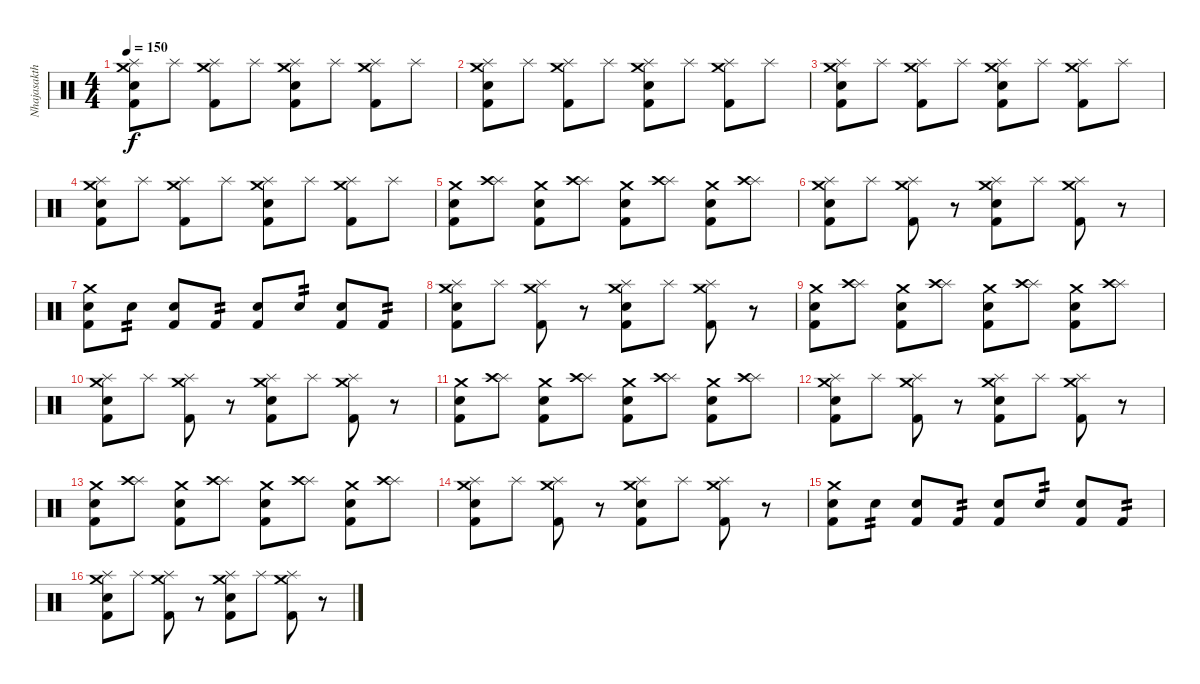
\track ("Nhajasakthee" "Nhajasakth") {instrument percussion}
\staff {score}
\articulation defaults
\ts (4 4)
\tempo 150
\clef neutral
\ks c
("Splash (hit)" "Crash medium (hit)" "Kick (hit) 2" "Electric Snare (hit)").8{dy f} "Splash (hit)".8 ("Splash (hit)" "Crash medium (hit)" "Kick (hit) 2").8 "Splash (hit)".8 ("Splash (hit)" "Crash medium (hit)" "Kick (hit) 2" "Electric Snare (hit)").8 "Splash (hit)".8 ("Splash (hit)" "Crash medium (hit)" "Kick (hit) 2").8 "Splash (hit)".8 |
("Splash (hit)" "Crash medium (hit)" "Kick (hit) 2" "Electric Snare (hit)").8 "Splash (hit)".8 ("Splash (hit)" "Crash medium (hit)" "Kick (hit) 2").8 "Splash (hit)".8 ("Splash (hit)" "Crash medium (hit)" "Kick (hit) 2" "Electric Snare (hit)").8 "Splash (hit)".8 ("Splash (hit)" "Crash medium (hit)" "Kick (hit) 2").8 "Splash (hit)".8 |
("Splash (hit)" "Crash medium (hit)" "Kick (hit) 2" "Electric Snare (hit)").8 "Splash (hit)".8 ("Splash (hit)" "Crash medium (hit)" "Kick (hit) 2").8 "Splash (hit)".8 ("Splash (hit)" "Crash medium (hit)" "Kick (hit) 2" "Electric Snare (hit)").8 "Splash (hit)".8 ("Splash (hit)" "Crash medium (hit)" "Kick (hit) 2").8 "Splash (hit)".8 |
("Splash (hit)" "Crash medium (hit)" "Kick (hit) 2" "Electric Snare (hit)").8 "Splash (hit)".8 ("Splash (hit)" "Crash medium (hit)" "Kick (hit) 2").8 "Splash (hit)".8 ("Splash (hit)" "Crash medium (hit)" "Kick (hit) 2" "Electric Snare (hit)").8 "Splash (hit)".8 ("Splash (hit)" "Crash medium (hit)" "Kick (hit) 2").8 "Splash (hit)".8 |
("Crash medium (hit)" "Kick (hit) 2" "Electric Snare (hit)").8 ("Splash (hit)" "Crash high (hit)").8 ("Crash medium (hit)" "Kick (hit) 2" "Electric Snare (hit)").8 ("Splash (hit)" "Crash high (hit)").8 ("Crash medium (hit)" "Kick (hit) 2" "Electric Snare (hit)").8 ("Splash (hit)" "Crash high (hit)").8 ("Crash medium (hit)" "Kick (hit) 2" "Electric Snare (hit)").8 ("Splash (hit)" "Crash high (hit)").8 |
("Splash (hit)" "Crash medium (hit)" "Kick (hit) 2" "Electric Snare (hit)").8 "Splash (hit)".8 ("Splash (hit)" "Crash medium (hit)" "Kick (hit) 2").8 r.8 ("Splash (hit)" "Crash medium (hit)" "Kick (hit) 2" "Electric Snare (hit)").8 "Splash (hit)".8 ("Splash (hit)" "Crash medium (hit)" "Kick (hit) 2").8 r.8 |
("Crash medium (hit)" "Kick (hit) 2" "Electric Snare (hit)").8 "Electric Snare (hit)".8{tp 2} ("Kick (hit) 2" "Electric Snare (hit)").8 "Kick (hit) 2".8{tp 2} ("Kick (hit) 2" "Electric Snare (hit)").8 "Electric Snare (hit)".8{tp 2} ("Kick (hit) 2" "Electric Snare (hit)").8 "Kick (hit) 2".8{tp 2} |
("Splash (hit)" "Crash medium (hit)" "Kick (hit) 2" "Electric Snare (hit)").8 "Splash (hit)".8 ("Splash (hit)" "Crash medium (hit)" "Kick (hit) 2").8 r.8 ("Splash (hit)" "Crash medium (hit)" "Kick (hit) 2" "Electric Snare (hit)").8 "Splash (hit)".8 ("Splash (hit)" "Crash medium (hit)" "Kick (hit) 2").8 r.8 |
("Crash medium (hit)" "Kick (hit) 2" "Electric Snare (hit)").8 ("Splash (hit)" "Crash high (hit)").8 ("Crash medium (hit)" "Kick (hit) 2" "Electric Snare (hit)").8 ("Splash (hit)" "Crash high (hit)").8 ("Crash medium (hit)" "Kick (hit) 2" "Electric Snare (hit)").8 ("Splash (hit)" "Crash high (hit)").8 ("Crash medium (hit)" "Kick (hit) 2" "Electric Snare (hit)").8 ("Splash (hit)" "Crash high (hit)").8 |
("Splash (hit)" "Crash medium (hit)" "Kick (hit) 2" "Electric Snare (hit)").8 "Splash (hit)".8 ("Splash (hit)" "Crash medium (hit)" "Kick (hit) 2").8 r.8 ("Splash (hit)" "Crash medium (hit)" "Kick (hit) 2" "Electric Snare (hit)").8 "Splash (hit)".8 ("Splash (hit)" "Crash medium (hit)" "Kick (hit) 2").8 r.8 |
("Crash medium (hit)" "Kick (hit) 2" "Electric Snare (hit)").8 ("Splash (hit)" "Crash high (hit)").8 ("Crash medium (hit)" "Kick (hit) 2" "Electric Snare (hit)").8 ("Splash (hit)" "Crash high (hit)").8 ("Crash medium (hit)" "Kick (hit) 2" "Electric Snare (hit)").8 ("Splash (hit)" "Crash high (hit)").8 ("Crash medium (hit)" "Kick (hit) 2" "Electric Snare (hit)").8 ("Splash (hit)" "Crash high (hit)").8 |
("Splash (hit)" "Crash medium (hit)" "Kick (hit) 2" "Electric Snare (hit)").8 "Splash (hit)".8 ("Splash (hit)" "Crash medium (hit)" "Kick (hit) 2").8 r.8 ("Splash (hit)" "Crash medium (hit)" "Kick (hit) 2" "Electric Snare (hit)").8 "Splash (hit)".8 ("Splash (hit)" "Crash medium (hit)" "Kick (hit) 2").8 r.8 |
("Crash medium (hit)" "Kick (hit) 2" "Electric Snare (hit)").8 ("Splash (hit)" "Crash high (hit)").8 ("Crash medium (hit)" "Kick (hit) 2" "Electric Snare (hit)").8 ("Splash (hit)" "Crash high (hit)").8 ("Crash medium (hit)" "Kick (hit) 2" "Electric Snare (hit)").8 ("Splash (hit)" "Crash high (hit)").8 ("Crash medium (hit)" "Kick (hit) 2" "Electric Snare (hit)").8 ("Splash (hit)" "Crash high (hit)").8 |
("Splash (hit)" "Crash medium (hit)" "Kick (hit) 2" "Electric Snare (hit)").8 "Splash (hit)".8 ("Splash (hit)" "Crash medium (hit)" "Kick (hit) 2").8 r.8 ("Splash (hit)" "Crash medium (hit)" "Kick (hit) 2" "Electric Snare (hit)").8 "Splash (hit)".8 ("Splash (hit)" "Crash medium (hit)" "Kick (hit) 2").8 r.8 |
("Crash medium (hit)" "Kick (hit) 2" "Electric Snare (hit)").8 "Electric Snare (hit)".8{tp 2} ("Kick (hit) 2" "Electric Snare (hit)").8 "Kick (hit) 2".8{tp 2} ("Kick (hit) 2" "Electric Snare (hit)").8 "Electric Snare (hit)".8{tp 2} ("Kick (hit) 2" "Electric Snare (hit)").8 "Kick (hit) 2".8{tp 2} |
("Splash (hit)" "Crash medium (hit)" "Kick (hit) 2" "Electric Snare (hit)").8 "Splash (hit)".8 ("Splash (hit)" "Crash medium (hit)" "Kick (hit) 2").8 r.8 ("Splash (hit)" "Crash medium (hit)" "Kick (hit) 2" "Electric Snare (hit)").8 "Splash (hit)".8 ("Splash (hit)" "Crash medium (hit)" "Kick (hit) 2").8 r.8
